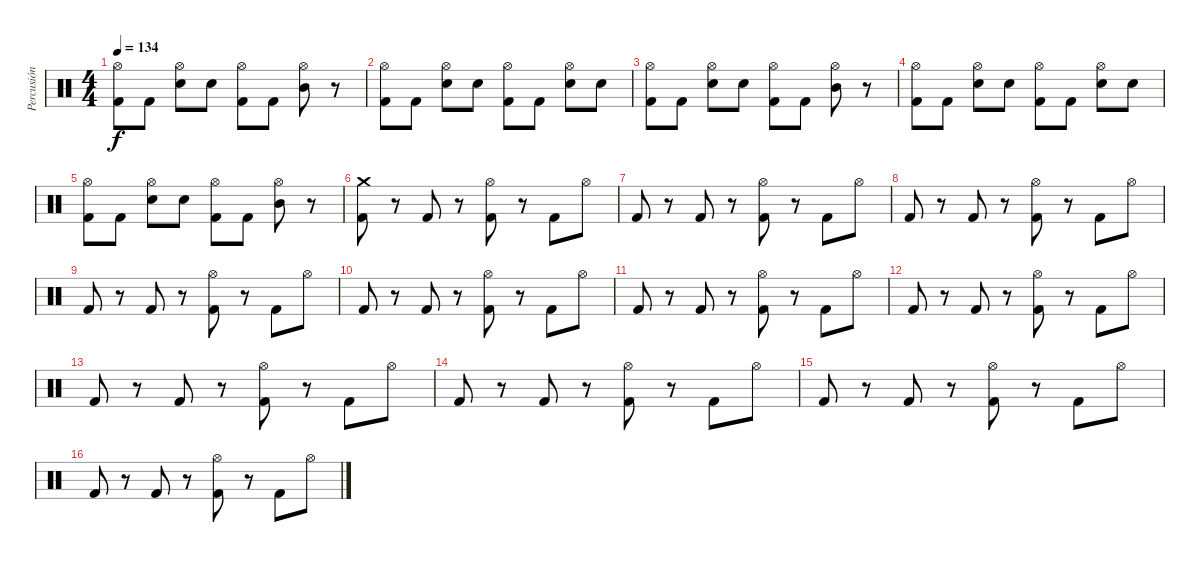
\track ("Percusión" "Percusión") {instrument percussion}
\staff {score}
\articulation defaults
\ts (4 4)
\tempo 134
\clef neutral
\ks c
("Hi-Hat (open)" "Kick (hit) 2").8{dy f} "Kick (hit) 2".8 ("Hi-Hat (open)" "Snare (hit) 2").8 "Snare (hit) 2".8 ("Hi-Hat (open)" "Kick (hit) 2").8 "Kick (hit) 2".8 ("Hi-Hat (open)" "Mid Tom (hit)").8 r.8 |
("Hi-Hat (open)" "Kick (hit) 2").8 "Kick (hit) 2".8 ("Hi-Hat (open)" "Snare (hit) 2").8 "Snare (hit) 2".8 ("Hi-Hat (open)" "Kick (hit) 2").8 "Kick (hit) 2".8 ("Hi-Hat (open)" "Snare (hit) 2").8 "Snare (hit) 2".8 |
("Hi-Hat (open)" "Kick (hit) 2").8 "Kick (hit) 2".8 ("Hi-Hat (open)" "Snare (hit) 2").8 "Snare (hit) 2".8 ("Hi-Hat (open)" "Kick (hit) 2").8 "Kick (hit) 2".8 ("Hi-Hat (open)" "Mid Tom (hit)").8 r.8 |
("Hi-Hat (open)" "Kick (hit) 2").8 "Kick (hit) 2".8 ("Hi-Hat (open)" "Snare (hit) 2").8 "Snare (hit) 2".8 ("Hi-Hat (open)" "Kick (hit) 2").8 "Kick (hit) 2".8 ("Hi-Hat (open)" "Snare (hit) 2").8 "Snare (hit) 2".8 |
("Hi-Hat (open)" "Kick (hit) 2").8 "Kick (hit) 2".8 ("Hi-Hat (open)" "Snare (hit) 2").8 "Snare (hit) 2".8 ("Hi-Hat (open)" "Kick (hit) 2").8 "Kick (hit) 2".8 ("Hi-Hat (open)" "Mid Tom (hit)").8 r.8 |
("Crash medium (hit)" "Kick (hit) 2").8 r.8 "Kick (hit) 2".8 r.8 ("Hi-Hat (open)" "Kick (hit) 2").8 r.8 "Kick (hit) 2".8 "Hi-Hat (open)".8 |
"Kick (hit) 2".8 r.8 "Kick (hit) 2".8 r.8 ("Hi-Hat (open)" "Kick (hit) 2").8 r.8 "Kick (hit) 2".8 "Hi-Hat (open)".8 |
"Kick (hit) 2".8 r.8 "Kick (hit) 2".8 r.8 ("Hi-Hat (open)" "Kick (hit) 2").8 r.8 "Kick (hit) 2".8 "Hi-Hat (open)".8 |
"Kick (hit) 2".8 r.8 "Kick (hit) 2".8 r.8 ("Hi-Hat (open)" "Kick (hit) 2").8 r.8 "Kick (hit) 2".8 "Hi-Hat (open)".8 |
"Kick (hit) 2".8 r.8 "Kick (hit) 2".8 r.8 ("Hi-Hat (open)" "Kick (hit) 2").8 r.8 "Kick (hit) 2".8 "Hi-Hat (open)".8 |
"Kick (hit) 2".8 r.8 "Kick (hit) 2".8 r.8 ("Hi-Hat (open)" "Kick (hit) 2").8 r.8 "Kick (hit) 2".8 "Hi-Hat (open)".8 |
"Kick (hit) 2".8 r.8 "Kick (hit) 2".8 r.8 ("Hi-Hat (open)" "Kick (hit) 2").8 r.8 "Kick (hit) 2".8 "Hi-Hat (open)".8 |
"Kick (hit) 2".8 r.8 "Kick (hit) 2".8 r.8 ("Hi-Hat (open)" "Kick (hit) 2").8 r.8 "Kick (hit) 2".8 "Hi-Hat (open)".8 |
"Kick (hit) 2".8 r.8 "Kick (hit) 2".8 r.8 ("Hi-Hat (open)" "Kick (hit) 2").8 r.8 "Kick (hit) 2".8 "Hi-Hat (open)".8 |
"Kick (hit) 2".8 r.8 "Kick (hit) 2".8 r.8 ("Hi-Hat (open)" "Kick (hit) 2").8 r.8 "Kick (hit) 2".8 "Hi-Hat (open)".8 |
"Kick (hit) 2".8 r.8 "Kick (hit) 2".8 r.8 ("Hi-Hat (open)" "Kick (hit) 2").8 r.8 "Kick (hit) 2".8 "Hi-Hat (open)".8
